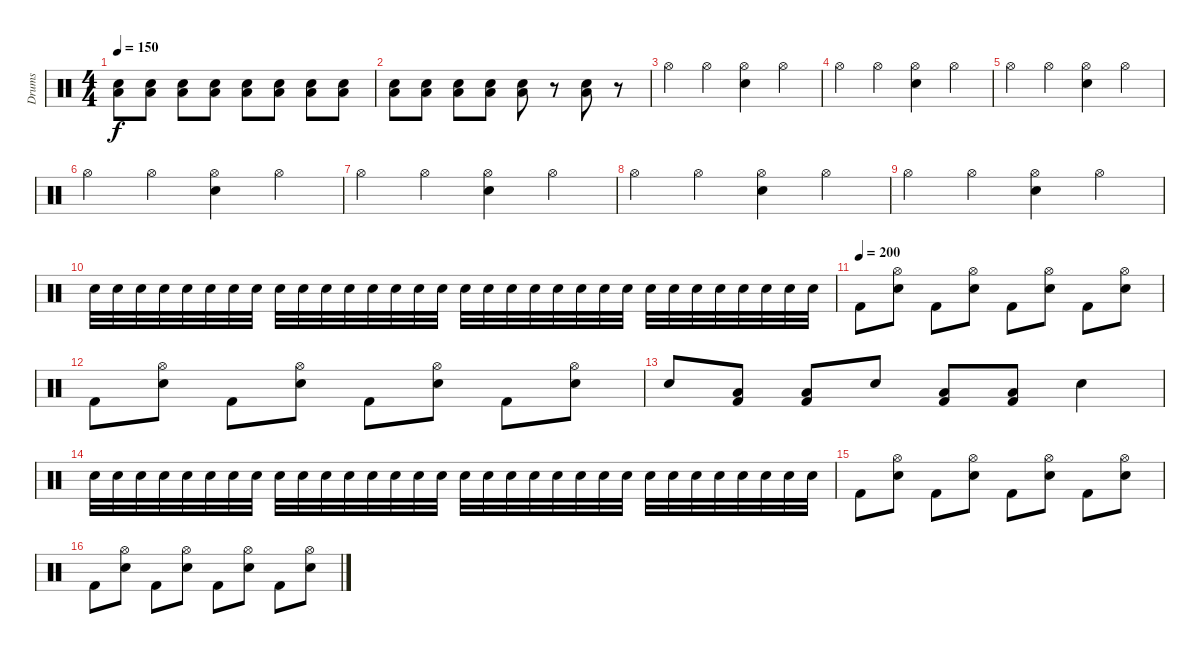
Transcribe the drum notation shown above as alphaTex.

\track ("Drums" "Drums") {instrument percussion}
\staff {score}
\articulation defaults
\ts (4 4)
\tempo 150
\clef neutral
\ks c
("Low Tom (hit)" "Electric Snare (hit)").8{dy f volume 16} ("Low Tom (hit)" "Electric Snare (hit)").8 ("Low Tom (hit)" "Electric Snare (hit)").8 ("Low Tom (hit)" "Electric Snare (hit)").8 ("Low Tom (hit)" "Electric Snare (hit)").8 ("Low Tom (hit)" "Electric Snare (hit)").8 ("Low Tom (hit)" "Electric Snare (hit)").8 ("Low Tom (hit)" "Electric Snare (hit)").8 |
("Low Tom (hit)" "Electric Snare (hit)").8 ("Low Tom (hit)" "Electric Snare (hit)").8 ("Low Tom (hit)" "Electric Snare (hit)").8 ("Low Tom (hit)" "Electric Snare (hit)").8 ("Low Tom (hit)" "Electric Snare (hit)").8 r.8 ("Low Tom (hit)" "Electric Snare (hit)").8 r.8 |
"Hi-Hat (open)".4 "Hi-Hat (open)".4 ("Hi-Hat (open)" "Electric Snare (hit)").4 "Hi-Hat (open)".4 |
"Hi-Hat (open)".4 "Hi-Hat (open)".4 ("Hi-Hat (open)" "Electric Snare (hit)").4 "Hi-Hat (open)".4 |
"Hi-Hat (open)".4 "Hi-Hat (open)".4 ("Hi-Hat (open)" "Electric Snare (hit)").4 "Hi-Hat (open)".4 |
"Hi-Hat (open)".4 "Hi-Hat (open)".4 ("Hi-Hat (open)" "Electric Snare (hit)").4 "Hi-Hat (open)".4 |
"Hi-Hat (open)".4 "Hi-Hat (open)".4 ("Hi-Hat (open)" "Electric Snare (hit)").4 "Hi-Hat (open)".4 |
"Hi-Hat (open)".4 "Hi-Hat (open)".4 ("Hi-Hat (open)" "Electric Snare (hit)").4 "Hi-Hat (open)".4 |
"Hi-Hat (open)".4 "Hi-Hat (open)".4 ("Hi-Hat (open)" "Electric Snare (hit)").4 "Hi-Hat (open)".4 |
"Electric Snare (hit)".32 "Electric Snare (hit)".32 "Electric Snare (hit)".32 "Electric Snare (hit)".32 "Electric Snare (hit)".32 "Electric Snare (hit)".32 "Electric Snare (hit)".32 "Electric Snare (hit)".32 "Electric Snare (hit)".32 "Electric Snare (hit)".32 "Electric Snare (hit)".32 "Electric Snare (hit)".32 "Electric Snare (hit)".32 "Electric Snare (hit)".32 "Electric Snare (hit)".32 "Electric Snare (hit)".32 "Electric Snare (hit)".32 "Electric Snare (hit)".32 "Electric Snare (hit)".32 "Electric Snare (hit)".32 "Electric Snare (hit)".32 "Electric Snare (hit)".32 "Electric Snare (hit)".32 "Electric Snare (hit)".32 "Electric Snare (hit)".32 "Electric Snare (hit)".32 "Electric Snare (hit)".32 "Electric Snare (hit)".32 "Electric Snare (hit)".32 "Electric Snare (hit)".32 "Electric Snare (hit)".32 "Electric Snare (hit)".32 |
\tempo (200)
"Kick (hit) 2".8 ("Hi-Hat (open)" "Electric Snare (hit)").8 "Kick (hit) 2".8 ("Hi-Hat (open)" "Electric Snare (hit)").8 "Kick (hit) 2".8 ("Hi-Hat (open)" "Electric Snare (hit)").8 "Kick (hit) 2".8 ("Hi-Hat (open)" "Electric Snare (hit)").8 |
"Kick (hit) 2".8 ("Hi-Hat (open)" "Electric Snare (hit)").8 "Kick (hit) 2".8 ("Hi-Hat (open)" "Electric Snare (hit)").8 "Kick (hit) 2".8 ("Hi-Hat (open)" "Electric Snare (hit)").8 "Kick (hit) 2".8 ("Hi-Hat (open)" "Electric Snare (hit)").8 |
"Electric Snare (hit)".8 ("Low Floor Tom (hit)" "Kick (hit) 2").8 ("Low Floor Tom (hit)" "Kick (hit) 2").8 "Electric Snare (hit)".8 ("Low Floor Tom (hit)" "Kick (hit) 2").8 ("Low Floor Tom (hit)" "Kick (hit) 2").8 "Electric Snare (hit)".4 |
"Electric Snare (hit)".32 "Electric Snare (hit)".32 "Electric Snare (hit)".32 "Electric Snare (hit)".32 "Electric Snare (hit)".32 "Electric Snare (hit)".32 "Electric Snare (hit)".32 "Electric Snare (hit)".32 "Electric Snare (hit)".32 "Electric Snare (hit)".32 "Electric Snare (hit)".32 "Electric Snare (hit)".32 "Electric Snare (hit)".32 "Electric Snare (hit)".32 "Electric Snare (hit)".32 "Electric Snare (hit)".32 "Electric Snare (hit)".32 "Electric Snare (hit)".32 "Electric Snare (hit)".32 "Electric Snare (hit)".32 "Electric Snare (hit)".32 "Electric Snare (hit)".32 "Electric Snare (hit)".32 "Electric Snare (hit)".32 "Electric Snare (hit)".32 "Electric Snare (hit)".32 "Electric Snare (hit)".32 "Electric Snare (hit)".32 "Electric Snare (hit)".32 "Electric Snare (hit)".32 "Electric Snare (hit)".32 "Electric Snare (hit)".32 |
"Kick (hit) 2".8 ("Hi-Hat (open)" "Electric Snare (hit)").8 "Kick (hit) 2".8 ("Hi-Hat (open)" "Electric Snare (hit)").8 "Kick (hit) 2".8 ("Hi-Hat (open)" "Electric Snare (hit)").8 "Kick (hit) 2".8 ("Hi-Hat (open)" "Electric Snare (hit)").8 |
"Kick (hit) 2".8 ("Hi-Hat (open)" "Electric Snare (hit)").8 "Kick (hit) 2".8 ("Hi-Hat (open)" "Electric Snare (hit)").8 "Kick (hit) 2".8 ("Hi-Hat (open)" "Electric Snare (hit)").8 "Kick (hit) 2".8 ("Hi-Hat (open)" "Electric Snare (hit)").8
